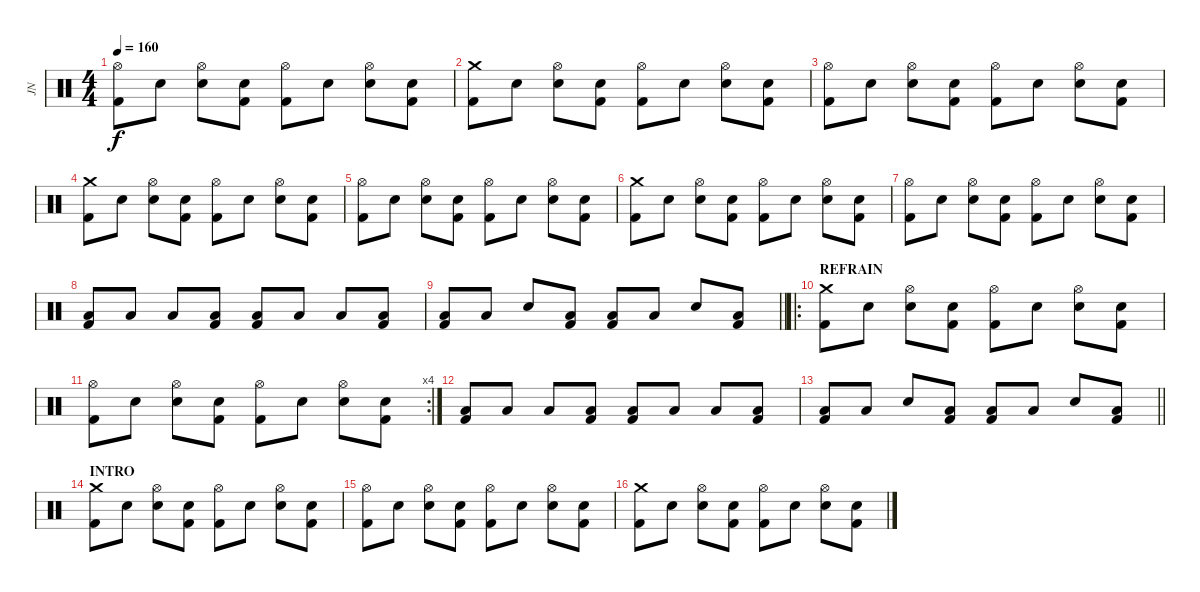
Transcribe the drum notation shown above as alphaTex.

\track ("JN" "JN") {instrument percussion}
\staff {score}
\articulation defaults
\ts (4 4)
\tempo 160
\clef neutral
\ks c
("Hi-Hat (open)" "Kick (hit) 2").8{dy f} "Snare (hit)".8 ("Hi-Hat (open)" "Electric Snare (hit)").8 ("Snare (hit)" "Kick (hit) 2").8 ("Hi-Hat (open)" "Kick (hit) 2").8 "Snare (hit)".8 ("Hi-Hat (open)" "Electric Snare (hit)").8 ("Snare (hit)" "Kick (hit) 2").8 |
("Crash medium (hit)" "Kick (hit) 2").8 "Snare (hit)".8 ("Hi-Hat (open)" "Electric Snare (hit)").8 ("Snare (hit)" "Kick (hit) 2").8 ("Hi-Hat (open)" "Kick (hit) 2").8 "Snare (hit)".8 ("Hi-Hat (open)" "Electric Snare (hit)").8 ("Snare (hit)" "Kick (hit) 2").8 |
("Hi-Hat (open)" "Kick (hit) 2").8 "Snare (hit)".8 ("Hi-Hat (open)" "Electric Snare (hit)").8 ("Snare (hit)" "Kick (hit) 2").8 ("Hi-Hat (open)" "Kick (hit) 2").8 "Snare (hit)".8 ("Hi-Hat (open)" "Electric Snare (hit)").8 ("Snare (hit)" "Kick (hit) 2").8 |
("Crash medium (hit)" "Kick (hit) 2").8 "Snare (hit)".8 ("Hi-Hat (open)" "Electric Snare (hit)").8 ("Snare (hit)" "Kick (hit) 2").8 ("Hi-Hat (open)" "Kick (hit) 2").8 "Snare (hit)".8 ("Hi-Hat (open)" "Electric Snare (hit)").8 ("Snare (hit)" "Kick (hit) 2").8 |
("Hi-Hat (open)" "Kick (hit) 2").8 "Snare (hit)".8 ("Hi-Hat (open)" "Electric Snare (hit)").8 ("Snare (hit)" "Kick (hit) 2").8 ("Hi-Hat (open)" "Kick (hit) 2").8 "Snare (hit)".8 ("Hi-Hat (open)" "Electric Snare (hit)").8 ("Snare (hit)" "Kick (hit) 2").8 |
("Crash medium (hit)" "Kick (hit) 2").8 "Snare (hit)".8 ("Hi-Hat (open)" "Electric Snare (hit)").8 ("Snare (hit)" "Kick (hit) 2").8 ("Hi-Hat (open)" "Kick (hit) 2").8 "Snare (hit)".8 ("Hi-Hat (open)" "Electric Snare (hit)").8 ("Snare (hit)" "Kick (hit) 2").8 |
("Hi-Hat (open)" "Kick (hit) 2").8 "Snare (hit)".8 ("Hi-Hat (open)" "Electric Snare (hit)").8 ("Snare (hit)" "Kick (hit) 2").8 ("Hi-Hat (open)" "Kick (hit) 2").8 "Snare (hit)".8 ("Hi-Hat (open)" "Electric Snare (hit)").8 ("Snare (hit)" "Kick (hit) 2").8 |
("Low Tom (hit)" "Kick (hit) 2").8 "Low Tom (hit)".8 "Low Tom (hit)".8 ("Low Tom (hit)" "Kick (hit) 2").8 ("Low Tom (hit)" "Kick (hit) 2").8 "Low Tom (hit)".8 "Low Tom (hit)".8 ("Low Tom (hit)" "Kick (hit) 2").8 |
\barLineRight lightlight
("Low Tom (hit)" "Kick (hit) 2").8 "Low Tom (hit)".8 "Electric Snare (hit)".8 ("Low Tom (hit)" "Kick (hit) 2").8 ("Low Tom (hit)" "Kick (hit) 2").8 "Low Tom (hit)".8 "Electric Snare (hit)".8 ("Low Tom (hit)" "Kick (hit) 2").8 |
\ro
\section ("" "REFRAIN")
("Crash medium (hit)" "Kick (hit) 2").8 "Snare (hit)".8 ("Hi-Hat (open)" "Electric Snare (hit)").8 ("Snare (hit)" "Kick (hit) 2").8 ("Hi-Hat (open)" "Kick (hit) 2").8 "Snare (hit)".8 ("Hi-Hat (open)" "Electric Snare (hit)").8 ("Snare (hit)" "Kick (hit) 2").8 |
\rc 4
("Hi-Hat (open)" "Kick (hit) 2").8 "Snare (hit)".8 ("Hi-Hat (open)" "Electric Snare (hit)").8 ("Snare (hit)" "Kick (hit) 2").8 ("Hi-Hat (open)" "Kick (hit) 2").8 "Snare (hit)".8 ("Hi-Hat (open)" "Electric Snare (hit)").8 ("Snare (hit)" "Kick (hit) 2").8 |
("Low Tom (hit)" "Kick (hit) 2").8 "Low Tom (hit)".8 "Low Tom (hit)".8 ("Low Tom (hit)" "Kick (hit) 2").8 ("Low Tom (hit)" "Kick (hit) 2").8 "Low Tom (hit)".8 "Low Tom (hit)".8 ("Low Tom (hit)" "Kick (hit) 2").8 |
\barLineRight lightlight
("Low Tom (hit)" "Kick (hit) 2").8 "Low Tom (hit)".8 "Electric Snare (hit)".8 ("Low Tom (hit)" "Kick (hit) 2").8 ("Low Tom (hit)" "Kick (hit) 2").8 "Low Tom (hit)".8 "Electric Snare (hit)".8 ("Low Tom (hit)" "Kick (hit) 2").8 |
\section ("" "INTRO")
("Crash medium (hit)" "Kick (hit) 2").8 "Snare (hit)".8 ("Hi-Hat (open)" "Electric Snare (hit)").8 ("Snare (hit)" "Kick (hit) 2").8 ("Hi-Hat (open)" "Kick (hit) 2").8 "Snare (hit)".8 ("Hi-Hat (open)" "Electric Snare (hit)").8 ("Snare (hit)" "Kick (hit) 2").8 |
("Hi-Hat (open)" "Kick (hit) 2").8 "Snare (hit)".8 ("Hi-Hat (open)" "Electric Snare (hit)").8 ("Snare (hit)" "Kick (hit) 2").8 ("Hi-Hat (open)" "Kick (hit) 2").8 "Snare (hit)".8 ("Hi-Hat (open)" "Electric Snare (hit)").8 ("Snare (hit)" "Kick (hit) 2").8 |
("Crash medium (hit)" "Kick (hit) 2").8 "Snare (hit)".8 ("Hi-Hat (open)" "Electric Snare (hit)").8 ("Snare (hit)" "Kick (hit) 2").8 ("Hi-Hat (open)" "Kick (hit) 2").8 "Snare (hit)".8 ("Hi-Hat (open)" "Electric Snare (hit)").8 ("Snare (hit)" "Kick (hit) 2").8
